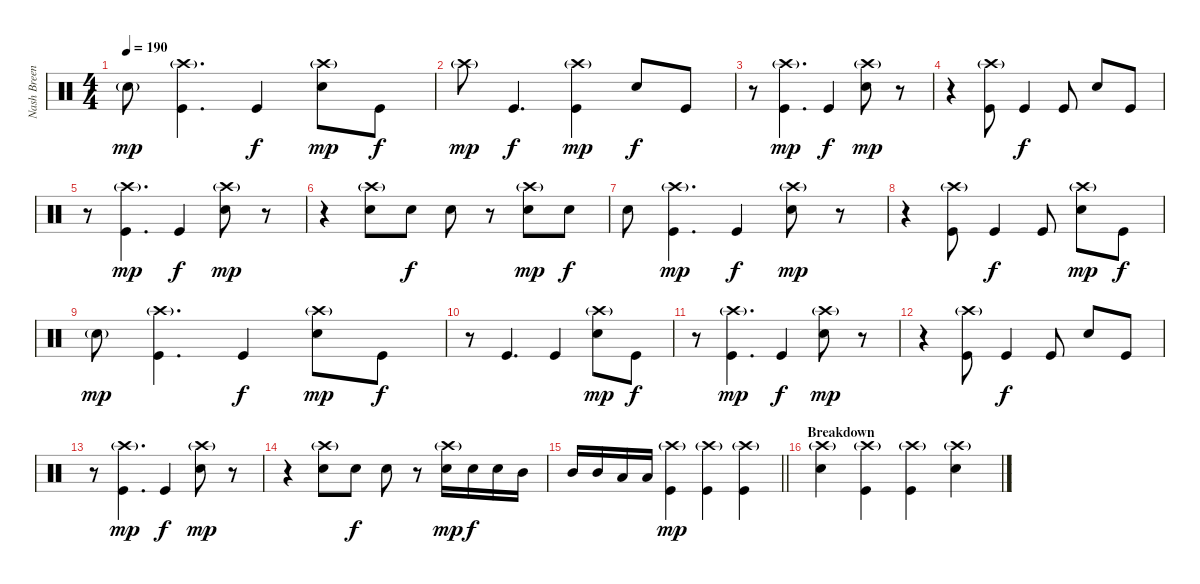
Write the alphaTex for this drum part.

\track ("Nash Breen (Percussion)" "Nash Breen") {instrument percussion}
\staff {score}
\articulation defaults
\ts (4 4)
\tempo 190
\clef neutral
\ks c "Electric Snare (hit)"{g}.8{dy mp}
("Kick (hit)" "Crash high (hit)"{g}).4{d} "Kick (hit)".4{dy f} ("Electric Snare (hit)" "Crash high (hit)"{g}).8{dy mp} "Kick (hit)".8{dy f} |
"Crash high (hit)"{g}.8{dy mp} "Kick (hit)".4{d dy f} ("Kick (hit)" "Crash high (hit)"{g}).4{dy mp} "Electric Snare (hit)".8{dy f} "Kick (hit)".8 |
r.8 ("Kick (hit)" "Crash high (hit)"{g}).4{d dy mp} "Kick (hit)".4{dy f} ("Electric Snare (hit)" "Crash high (hit)"{g}).8{dy mp} r.8 |
r.4 ("Kick (hit)" "Crash high (hit)"{g}).8 "Kick (hit)".4{dy f} "Kick (hit)".8 "Electric Snare (hit)".8 "Kick (hit)".8 |
r.8 ("Kick (hit)" "Crash high (hit)"{g}).4{d dy mp} "Kick (hit)".4{dy f} ("Electric Snare (hit)" "Crash high (hit)"{g}).8{dy mp} r.8 |
r.4 ("Electric Snare (hit)" "Crash high (hit)"{g}).8 "Electric Snare (hit)".8{dy f} "Electric Snare (hit)".8 r.8 ("Electric Snare (hit)" "Crash high (hit)"{g}).8{dy mp} "Electric Snare (hit)".8{dy f} |
"Electric Snare (hit)".8 ("Kick (hit)" "Crash high (hit)"{g}).4{d dy mp} "Kick (hit)".4{dy f} ("Electric Snare (hit)" "Crash high (hit)"{g}).8{dy mp} r.8 |
r.4 ("Kick (hit)" "Crash high (hit)"{g}).8 "Kick (hit)".4{dy f} "Kick (hit)".8 ("Electric Snare (hit)" "Crash high (hit)"{g}).8{dy mp} "Kick (hit)".8{dy f} |
"Electric Snare (hit)"{g}.8{dy mp} ("Kick (hit)" "Crash high (hit)"{g}).4{d} "Kick (hit)".4{dy f} ("Electric Snare (hit)" "Crash high (hit)"{g}).8{dy mp} "Kick (hit)".8{dy f} |
r.8 "Kick (hit)".4{d} "Kick (hit)".4 ("Electric Snare (hit)" "Crash high (hit)"{g}).8{dy mp} "Kick (hit)".8{dy f} |
r.8 ("Kick (hit)" "Crash high (hit)"{g}).4{d dy mp} "Kick (hit)".4{dy f} ("Electric Snare (hit)" "Crash high (hit)"{g}).8{dy mp} r.8 |
r.4 ("Kick (hit)" "Crash high (hit)"{g}).8 "Kick (hit)".4{dy f} "Kick (hit)".8 "Electric Snare (hit)".8 "Kick (hit)".8 |
r.8 ("Kick (hit)" "Crash high (hit)"{g}).4{d dy mp} "Kick (hit)".4{dy f} ("Electric Snare (hit)" "Crash high (hit)"{g}).8{dy mp} r.8 |
r.4 ("Electric Snare (hit)" "Crash high (hit)"{g}).8 "Electric Snare (hit)".8{dy f} "Electric Snare (hit)".8 r.8 ("Electric Snare (hit)" "Crash high (hit)"{g}).16{dy mp} "Electric Snare (hit)".16{dy f} "Electric Snare (hit)".16 "Mid Tom (hit)".16 |
\barLineRight lightlight "Mid Tom (hit)".16 "Mid Tom (hit)".16 "Low Tom (hit)".16 "Low Tom (hit)".16
("Kick (hit)" "Crash high (hit)"{g}).4{dy mp} ("Kick (hit)" "Crash high (hit)"{g}).4 ("Kick (hit)" "Crash high (hit)"{g}).4 |
\section ("" "Breakdown")
("Snare (hit) 2" "Crash high (hit)"{g}).4 ("Kick (hit)" "Crash high (hit)"{g}).4 ("Kick (hit)" "Crash high (hit)"{g}).4 ("Snare (hit) 2" "Crash high (hit)"{g}).4
